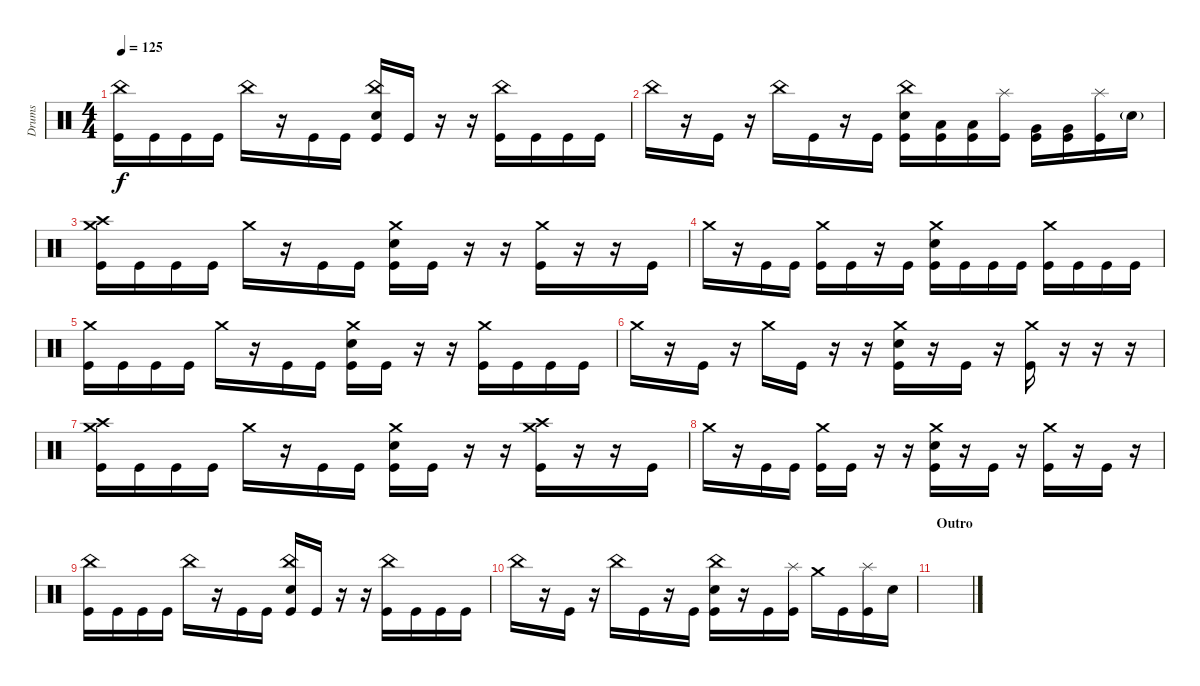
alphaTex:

\track ("Drums" "Drums") {instrument percussion}
\staff {score}
\articulation defaults
\ts (4 4)
\tempo 125
\clef neutral
\ks c
("Kick (hit)" "China (hit)").16{dy f} "Kick (hit)".16 "Kick (hit)".16 "Kick (hit)".16 "China (hit)".16 r.16 "Kick (hit)".16 "Kick (hit)".16 ("Kick (hit)" "Snare (hit) 2" "China (hit)").16 "Kick (hit)".16 r.16 r.16 ("Kick (hit)" "China (hit)").16 "Kick (hit)".16 "Kick (hit)".16 "Kick (hit)".16 |
"China (hit)".16 r.16 "Kick (hit)".16 r.16 "China (hit)".16 "Kick (hit)".16 r.16 "Kick (hit)".16 ("Kick (hit)" "Snare (hit) 2" "China (hit)").16 ("Kick (hit)" "Low Tom (hit)").16 ("Kick (hit)" "Low Tom (hit)").16 ("Kick (hit)" "Splash (hit)").16 ("Kick (hit)" "Very Low Tom (hit)").16 ("Kick (hit)" "Very Low Tom (hit)").16 ("Kick (hit)" "Splash (hit)").16 "Snare (hit) 2"{g}.16 |
("Kick (hit)" "Crash medium (hit)" "Crash high (hit)").16 "Kick (hit)".16 "Kick (hit)".16 "Kick (hit)".16 "Crash medium (hit)".16 r.16 "Kick (hit)".16 "Kick (hit)".16 ("Kick (hit)" "Crash medium (hit)" "Snare (hit) 2").16 "Kick (hit)".16 r.16 r.16 ("Kick (hit)" "Crash medium (hit)").16 r.16 r.16 "Kick (hit)".16 |
"Crash medium (hit)".16 r.16 "Kick (hit)".16 "Kick (hit)".16 ("Kick (hit)" "Crash medium (hit)").16 "Kick (hit)".16 r.16 "Kick (hit)".16 ("Crash medium (hit)" "Snare (hit) 2" "Kick (hit)").16 "Kick (hit)".16 "Kick (hit)".16 "Kick (hit)".16 ("Crash medium (hit)" "Kick (hit)").16 "Kick (hit)".16 "Kick (hit)".16 "Kick (hit)".16 |
("Kick (hit)" "Crash medium (hit)").16 "Kick (hit)".16 "Kick (hit)".16 "Kick (hit)".16 "Crash medium (hit)".16 r.16 "Kick (hit)".16 "Kick (hit)".16 ("Kick (hit)" "Crash medium (hit)" "Snare (hit) 2").16 "Kick (hit)".16 r.16 r.16 ("Kick (hit)" "Crash medium (hit)").16 "Kick (hit)".16 "Kick (hit)".16 "Kick (hit)".16 |
"Crash medium (hit)".16 r.16 "Kick (hit)".16 r.16 "Crash medium (hit)".16 "Kick (hit)".16 r.16 r.16 ("Crash medium (hit)" "Snare (hit) 2" "Kick (hit)").16 r.16 "Kick (hit)".16 r.16 ("Crash medium (hit)" "Kick (hit)").16 r.16 r.16 r.16 |
("Kick (hit)" "Crash medium (hit)" "Crash high (hit)").16 "Kick (hit)".16 "Kick (hit)".16 "Kick (hit)".16 "Crash medium (hit)".16 r.16 "Kick (hit)".16 "Kick (hit)".16 ("Kick (hit)" "Crash medium (hit)" "Snare (hit) 2").16 "Kick (hit)".16 r.16 r.16 ("Kick (hit)" "Crash medium (hit)" "Crash high (hit)").16 r.16 r.16 "Kick (hit)".16 |
"Crash medium (hit)".16 r.16 "Kick (hit)".16 "Kick (hit)".16 ("Kick (hit)" "Crash medium (hit)").16 "Kick (hit)".16 r.16 r.16 ("Crash medium (hit)" "Snare (hit) 2" "Kick (hit)").16 r.16 "Kick (hit)".16 r.16 ("Crash medium (hit)" "Kick (hit)").16 r.16 "Kick (hit)".16 r.16 |
("Kick (hit)" "China (hit)").16 "Kick (hit)".16 "Kick (hit)".16 "Kick (hit)".16 "China (hit)".16 r.16 "Kick (hit)".16 "Kick (hit)".16 ("Kick (hit)" "Snare (hit) 2" "China (hit)").16 "Kick (hit)".16 r.16 r.16 ("Kick (hit)" "China (hit)").16 "Kick (hit)".16 "Kick (hit)".16 "Kick (hit)".16 |
"China (hit)".16 r.16 "Kick (hit)".16 r.16 "China (hit)".16 "Kick (hit)".16 r.16 "Kick (hit)".16 ("Kick (hit)" "Snare (hit) 2" "China (hit)").16 r.16 "Kick (hit)".16 ("Kick (hit)" "Splash (hit)").16 "Crash medium (hit)".16 "Kick (hit)".16 ("Kick (hit)" "Splash (hit)").16 "Snare (hit) 2".16 |
\section ("" "Outro")
